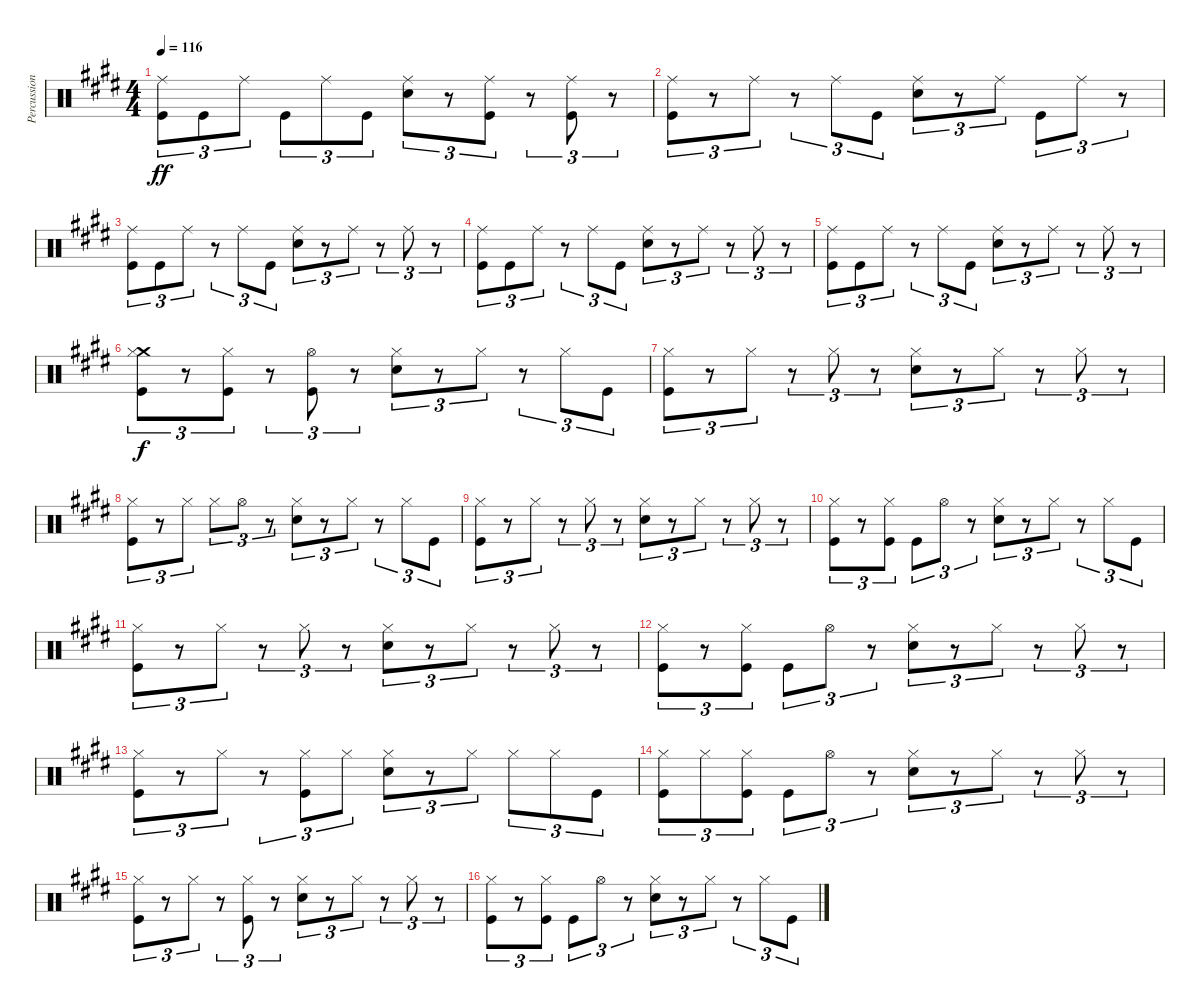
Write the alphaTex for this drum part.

\track ("Percussion" "Percussion") {instrument percussion}
\staff {score}
\articulation defaults
\ts (4 4)
\tempo 116
\clef neutral
\ks c#minor
("Ride (middle)" "Kick (hit)").8{tu (3 2) dy ff} "Kick (hit)".8{tu (3 2)} "Ride (middle)".8{tu (3 2)} "Kick (hit)".8{tu (3 2)} "Ride (middle)".8{tu (3 2)} "Kick (hit)".8{tu (3 2)} ("Ride (middle)" "Snare (hit) 2").8{tu (3 2)} r.8{tu (3 2)} ("Ride (middle)" "Kick (hit)").8{tu (3 2)} r.8{tu (3 2)} ("Ride (middle)" "Kick (hit)").8{tu (3 2)} r.8{tu (3 2)} |
("Ride (middle)" "Kick (hit)").8{tu (3 2)} r.8{tu (3 2)} "Ride (middle)".8{tu (3 2)} r.8{tu (3 2)} "Ride (middle)".8{tu (3 2)} "Kick (hit)".8{tu (3 2)} ("Ride (middle)" "Snare (hit) 2").8{tu (3 2)} r.8{tu (3 2)} "Ride (middle)".8{tu (3 2)} "Kick (hit)".8{tu (3 2)} "Ride (middle)".8{tu (3 2)} r.8{tu (3 2)} |
("Ride (middle)" "Kick (hit)").8{tu (3 2)} "Kick (hit)".8{tu (3 2)} "Ride (middle)".8{tu (3 2)} r.8{tu (3 2)} "Ride (middle)".8{tu (3 2)} "Kick (hit)".8{tu (3 2)} ("Ride (middle)" "Snare (hit) 2").8{tu (3 2)} r.8{tu (3 2)} "Ride (middle)".8{tu (3 2)} r.8{tu (3 2)} "Ride (middle)".8{tu (3 2)} r.8{tu (3 2)} |
("Ride (middle)" "Kick (hit)").8{tu (3 2)} "Kick (hit)".8{tu (3 2)} "Ride (middle)".8{tu (3 2)} r.8{tu (3 2)} "Ride (middle)".8{tu (3 2)} "Kick (hit)".8{tu (3 2)} ("Ride (middle)" "Snare (hit) 2").8{tu (3 2)} r.8{tu (3 2)} "Ride (middle)".8{tu (3 2)} r.8{tu (3 2)} "Ride (middle)".8{tu (3 2)} r.8{tu (3 2)} |
("Ride (middle)" "Kick (hit)").8{tu (3 2)} "Kick (hit)".8{tu (3 2)} "Ride (middle)".8{tu (3 2)} r.8{tu (3 2)} "Ride (middle)".8{tu (3 2)} "Kick (hit)".8{tu (3 2)} ("Ride (middle)" "Snare (hit) 2").8{tu (3 2)} r.8{tu (3 2)} "Ride (middle)".8{tu (3 2)} r.8{tu (3 2)} "Ride (middle)".8{tu (3 2)} r.8{tu (3 2)} |
("Crash medium (hit)" "Hi-Hat (closed)" "Kick (hit)").8{tu (3 2) dy f} r.8{tu (3 2)} ("Hi-Hat (closed)" "Kick (hit)").8{tu (3 2)} r.8{tu (3 2)} ("Hi-Hat (open)" "Kick (hit)").8{tu (3 2)} r.8{tu (3 2)} ("Snare (hit) 2" "Hi-Hat (closed)").8{tu (3 2)} r.8{tu (3 2)} "Hi-Hat (closed)".8{tu (3 2)} r.8{tu (3 2)} "Hi-Hat (closed)".8{tu (3 2)} "Kick (hit)".8{tu (3 2)} |
("Hi-Hat (closed)" "Kick (hit)").8{tu (3 2)} r.8{tu (3 2)} "Hi-Hat (closed)".8{tu (3 2)} r.8{tu (3 2)} "Hi-Hat (closed)".8{tu (3 2)} r.8{tu (3 2)} ("Snare (hit) 2" "Hi-Hat (closed)").8{tu (3 2)} r.8{tu (3 2)} "Hi-Hat (closed)".8{tu (3 2)} r.8{tu (3 2)} "Hi-Hat (closed)".8{tu (3 2)} r.8{tu (3 2)} |
("Hi-Hat (closed)" "Kick (hit)").8{tu (3 2)} r.8{tu (3 2)} "Hi-Hat (closed)".8{tu (3 2)} "Hi-Hat (closed)".8{tu (3 2)} "Hi-Hat (open)".8{tu (3 2)} r.8{tu (3 2)} ("Snare (hit) 2" "Hi-Hat (closed)").8{tu (3 2)} r.8{tu (3 2)} "Hi-Hat (closed)".8{tu (3 2)} r.8{tu (3 2)} "Hi-Hat (closed)".8{tu (3 2)} "Kick (hit)".8{tu (3 2)} |
("Hi-Hat (closed)" "Kick (hit)").8{tu (3 2)} r.8{tu (3 2)} "Hi-Hat (closed)".8{tu (3 2)} r.8{tu (3 2)} "Hi-Hat (closed)".8{tu (3 2)} r.8{tu (3 2)} ("Snare (hit) 2" "Hi-Hat (closed)").8{tu (3 2)} r.8{tu (3 2)} "Hi-Hat (closed)".8{tu (3 2)} r.8{tu (3 2)} "Hi-Hat (closed)".8{tu (3 2)} r.8{tu (3 2)} |
("Hi-Hat (closed)" "Kick (hit)").8{tu (3 2)} r.8{tu (3 2)} ("Hi-Hat (closed)" "Kick (hit)").8{tu (3 2)} "Kick (hit)".8{tu (3 2)} "Hi-Hat (open)".8{tu (3 2)} r.8{tu (3 2)} ("Snare (hit) 2" "Hi-Hat (closed)").8{tu (3 2)} r.8{tu (3 2)} "Hi-Hat (closed)".8{tu (3 2)} r.8{tu (3 2)} "Hi-Hat (closed)".8{tu (3 2)} "Kick (hit)".8{tu (3 2)} |
("Hi-Hat (closed)" "Kick (hit)").8{tu (3 2)} r.8{tu (3 2)} "Hi-Hat (closed)".8{tu (3 2)} r.8{tu (3 2)} "Hi-Hat (closed)".8{tu (3 2)} r.8{tu (3 2)} ("Snare (hit) 2" "Hi-Hat (closed)").8{tu (3 2)} r.8{tu (3 2)} "Hi-Hat (closed)".8{tu (3 2)} r.8{tu (3 2)} "Hi-Hat (closed)".8{tu (3 2)} r.8{tu (3 2)} |
("Hi-Hat (closed)" "Kick (hit)").8{tu (3 2)} r.8{tu (3 2)} ("Hi-Hat (closed)" "Kick (hit)").8{tu (3 2)} "Kick (hit)".8{tu (3 2)} "Hi-Hat (open)".8{tu (3 2)} r.8{tu (3 2)} ("Snare (hit) 2" "Hi-Hat (closed)").8{tu (3 2)} r.8{tu (3 2)} "Hi-Hat (closed)".8{tu (3 2)} r.8{tu (3 2)} "Hi-Hat (closed)".8{tu (3 2)} r.8{tu (3 2)} |
("Hi-Hat (closed)" "Kick (hit)").8{tu (3 2)} r.8{tu (3 2)} "Hi-Hat (closed)".8{tu (3 2)} r.8{tu (3 2)} ("Hi-Hat (closed)" "Kick (hit)").8{tu (3 2)} "Hi-Hat (closed)".8{tu (3 2)} ("Snare (hit) 2" "Hi-Hat (closed)").8{tu (3 2)} r.8{tu (3 2)} "Hi-Hat (closed)".8{tu (3 2)} "Hi-Hat (closed)".8{tu (3 2)} "Hi-Hat (closed)".8{tu (3 2)} "Kick (hit)".8{tu (3 2)} |
("Hi-Hat (closed)" "Kick (hit)").8{tu (3 2)} "Hi-Hat (closed)".8{tu (3 2)} ("Hi-Hat (closed)" "Kick (hit)").8{tu (3 2)} "Kick (hit)".8{tu (3 2)} "Hi-Hat (open)".8{tu (3 2)} r.8{tu (3 2)} ("Snare (hit) 2" "Hi-Hat (closed)").8{tu (3 2)} r.8{tu (3 2)} "Hi-Hat (closed)".8{tu (3 2)} r.8{tu (3 2)} "Hi-Hat (closed)".8{tu (3 2)} r.8{tu (3 2)} |
("Hi-Hat (closed)" "Kick (hit)").8{tu (3 2)} r.8{tu (3 2)} "Hi-Hat (closed)".8{tu (3 2)} r.8{tu (3 2)} ("Hi-Hat (closed)" "Kick (hit)").8{tu (3 2)} r.8{tu (3 2)} ("Snare (hit) 2" "Hi-Hat (closed)").8{tu (3 2)} r.8{tu (3 2)} "Hi-Hat (closed)".8{tu (3 2)} r.8{tu (3 2)} "Hi-Hat (closed)".8{tu (3 2)} r.8{tu (3 2)} |
("Hi-Hat (closed)" "Kick (hit)").8{tu (3 2)} r.8{tu (3 2)} ("Hi-Hat (closed)" "Kick (hit)").8{tu (3 2)} "Kick (hit)".8{tu (3 2)} "Hi-Hat (open)".8{tu (3 2)} r.8{tu (3 2)} ("Snare (hit) 2" "Hi-Hat (closed)").8{tu (3 2)} r.8{tu (3 2)} "Hi-Hat (closed)".8{tu (3 2)} r.8{tu (3 2)} "Hi-Hat (closed)".8{tu (3 2)} "Kick (hit)".8{tu (3 2)}
